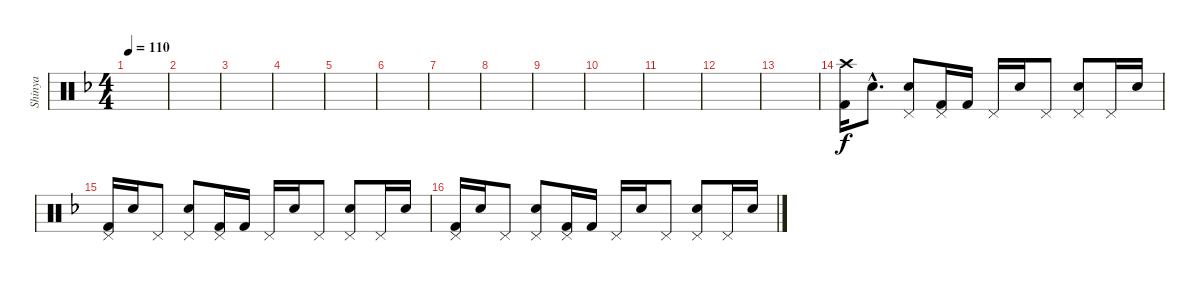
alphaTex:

\track ("Shinya" "Shinya") {instrument percussion}
\staff {score}
\articulation defaults
\ts (4 4)
\tempo 110
\clef neutral
\ks f
|
|
|
|
|
|
|
|
|
|
|
|
|
("Crash high (hit)" "Kick (hit) 2").16 "Electric Snare (hit)"{hac}.8{d} ("Pedal Hi-Hat (hit)" "Electric Snare (hit)").8 ("Pedal Hi-Hat (hit)" "Kick (hit) 2").16 "Kick (hit) 2".16 "Pedal Hi-Hat (hit)".16 "Electric Snare (hit)".16 "Pedal Hi-Hat (hit)".8 ("Pedal Hi-Hat (hit)" "Electric Snare (hit)").8 "Pedal Hi-Hat (hit)".16 "Electric Snare (hit)".16 |
("Pedal Hi-Hat (hit)" "Kick (hit) 2").16 "Electric Snare (hit)".16 "Pedal Hi-Hat (hit)".8 ("Pedal Hi-Hat (hit)" "Electric Snare (hit)").8 ("Pedal Hi-Hat (hit)" "Kick (hit) 2").16 "Kick (hit) 2".16 "Pedal Hi-Hat (hit)".16 "Electric Snare (hit)".16 "Pedal Hi-Hat (hit)".8 ("Pedal Hi-Hat (hit)" "Electric Snare (hit)").8 "Pedal Hi-Hat (hit)".16 "Electric Snare (hit)".16 |
("Pedal Hi-Hat (hit)" "Kick (hit) 2").16 "Electric Snare (hit)".16 "Pedal Hi-Hat (hit)".8 ("Pedal Hi-Hat (hit)" "Electric Snare (hit)").8 ("Pedal Hi-Hat (hit)" "Kick (hit) 2").16 "Kick (hit) 2".16 "Pedal Hi-Hat (hit)".16 "Electric Snare (hit)".16 "Pedal Hi-Hat (hit)".8 ("Pedal Hi-Hat (hit)" "Electric Snare (hit)").8 "Pedal Hi-Hat (hit)".16 "Electric Snare (hit)".16
